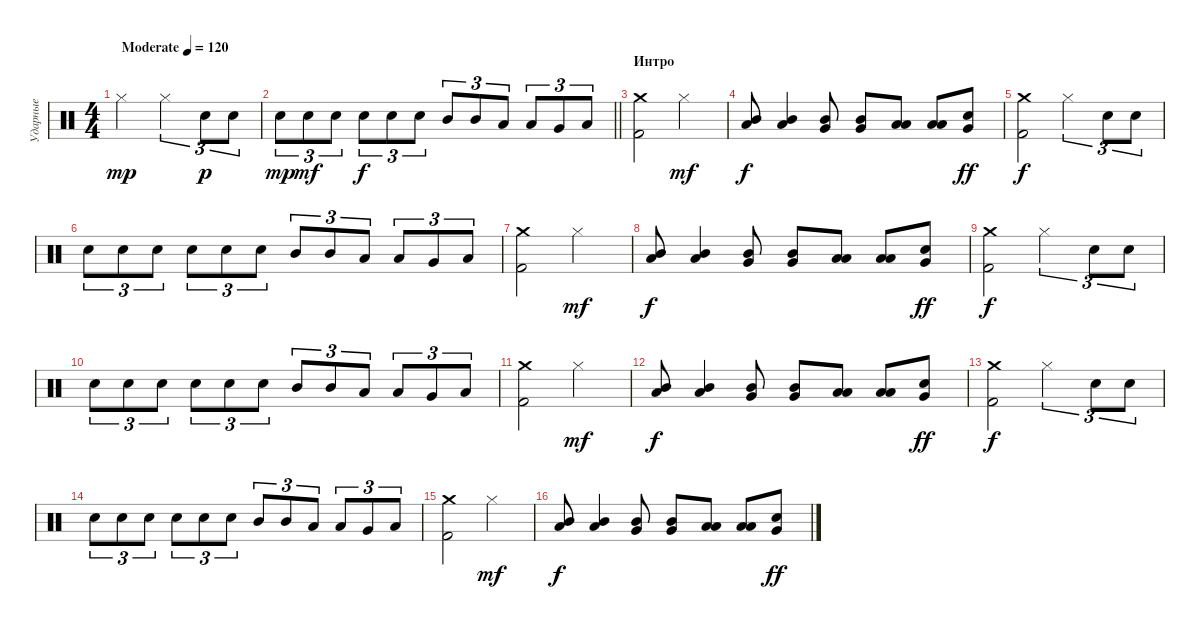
\track ("Ударные" "Ударные") {instrument percussion}
\staff {score}
\articulation defaults
\ts (4 4)
\tempo (120 "Moderate")
\clef neutral
\ks c "Hi-Hat (closed)".2{dy mp} "Hi-Hat (closed)".2{tu (3 2)} "Snare (hit) 2".8{tu (3 2) dy p} "Snare (hit) 2".8{tu (3 2)}
|
\barLineRight lightlight "Snare (hit) 2".8{tu (3 2) dy mp} "Snare (hit) 2".8{tu (3 2) dy mf} "Snare (hit) 2".8{tu (3 2)} "Snare (hit) 2".8{tu (3 2) dy f} "Snare (hit) 2".8{tu (3 2)} "Snare (hit) 2".8{tu (3 2)} "Mid Tom (hit)".8{tu (3 2)} "Mid Tom (hit)".8{tu (3 2)} "Low Tom (hit)".8{tu (3 2)} "Low Tom (hit)".8{tu (3 2)} "Very Low Tom (hit)".8{tu (3 2)} "Low Floor Tom (hit)".8{tu (3 2)}
|
\section ("" "Интро")
("Crash medium (hit)" "Kick (hit) 2").2 "Hi-Hat (closed)".2{dy mf} |
("Low Tom (hit)" "Mid Tom (hit)").8{dy f} ("Low Tom (hit)" "Mid Tom (hit)").4 ("Very Low Tom (hit)" "Mid Tom (hit)").8 ("Very Low Tom (hit)" "Mid Tom (hit)").8 ("Low Floor Tom (hit)" "Low Tom (hit)").8 ("Low Floor Tom (hit)" "Low Tom (hit)").8 ("Snare (hit) 2" "Very Low Tom (hit)").8{dy ff} |
("Crash medium (hit)" "Kick (hit) 2").2{dy f} "Hi-Hat (closed)".2{tu (3 2)} "Snare (hit) 2".8{tu (3 2)} "Snare (hit) 2".8{tu (3 2)} |
"Snare (hit) 2".8{tu (3 2)} "Snare (hit) 2".8{tu (3 2)} "Snare (hit) 2".8{tu (3 2)} "Snare (hit) 2".8{tu (3 2)} "Snare (hit) 2".8{tu (3 2)} "Snare (hit) 2".8{tu (3 2)} "Mid Tom (hit)".8{tu (3 2)} "Mid Tom (hit)".8{tu (3 2)} "Low Tom (hit)".8{tu (3 2)} "Low Tom (hit)".8{tu (3 2)} "Very Low Tom (hit)".8{tu (3 2)} "Low Floor Tom (hit)".8{tu (3 2)} |
("Crash medium (hit)" "Kick (hit) 2").2 "Hi-Hat (closed)".2{dy mf} |
("Low Tom (hit)" "Mid Tom (hit)").8{dy f} ("Low Tom (hit)" "Mid Tom (hit)").4 ("Very Low Tom (hit)" "Mid Tom (hit)").8 ("Very Low Tom (hit)" "Mid Tom (hit)").8 ("Low Floor Tom (hit)" "Low Tom (hit)").8 ("Low Floor Tom (hit)" "Low Tom (hit)").8 ("Snare (hit) 2" "Very Low Tom (hit)").8{dy ff} |
("Crash medium (hit)" "Kick (hit) 2").2{dy f} "Hi-Hat (closed)".2{tu (3 2)} "Snare (hit) 2".8{tu (3 2)} "Snare (hit) 2".8{tu (3 2)} |
"Snare (hit) 2".8{tu (3 2)} "Snare (hit) 2".8{tu (3 2)} "Snare (hit) 2".8{tu (3 2)} "Snare (hit) 2".8{tu (3 2)} "Snare (hit) 2".8{tu (3 2)} "Snare (hit) 2".8{tu (3 2)} "Mid Tom (hit)".8{tu (3 2)} "Mid Tom (hit)".8{tu (3 2)} "Low Tom (hit)".8{tu (3 2)} "Low Tom (hit)".8{tu (3 2)} "Very Low Tom (hit)".8{tu (3 2)} "Low Floor Tom (hit)".8{tu (3 2)} |
("Crash medium (hit)" "Kick (hit) 2").2 "Hi-Hat (closed)".2{dy mf} |
("Low Tom (hit)" "Mid Tom (hit)").8{dy f} ("Low Tom (hit)" "Mid Tom (hit)").4 ("Very Low Tom (hit)" "Mid Tom (hit)").8 ("Very Low Tom (hit)" "Mid Tom (hit)").8 ("Low Floor Tom (hit)" "Low Tom (hit)").8 ("Low Floor Tom (hit)" "Low Tom (hit)").8 ("Snare (hit) 2" "Very Low Tom (hit)").8{dy ff} |
("Crash medium (hit)" "Kick (hit) 2").2{dy f} "Hi-Hat (closed)".2{tu (3 2)} "Snare (hit) 2".8{tu (3 2)} "Snare (hit) 2".8{tu (3 2)} |
"Snare (hit) 2".8{tu (3 2)} "Snare (hit) 2".8{tu (3 2)} "Snare (hit) 2".8{tu (3 2)} "Snare (hit) 2".8{tu (3 2)} "Snare (hit) 2".8{tu (3 2)} "Snare (hit) 2".8{tu (3 2)} "Mid Tom (hit)".8{tu (3 2)} "Mid Tom (hit)".8{tu (3 2)} "Low Tom (hit)".8{tu (3 2)} "Low Tom (hit)".8{tu (3 2)} "Very Low Tom (hit)".8{tu (3 2)} "Low Floor Tom (hit)".8{tu (3 2)} |
("Crash medium (hit)" "Kick (hit) 2").2 "Hi-Hat (closed)".2{dy mf} |
("Low Tom (hit)" "Mid Tom (hit)").8{dy f} ("Low Tom (hit)" "Mid Tom (hit)").4 ("Very Low Tom (hit)" "Mid Tom (hit)").8 ("Very Low Tom (hit)" "Mid Tom (hit)").8 ("Low Floor Tom (hit)" "Low Tom (hit)").8 ("Low Floor Tom (hit)" "Low Tom (hit)").8 ("Snare (hit) 2" "Very Low Tom (hit)").8{dy ff}
